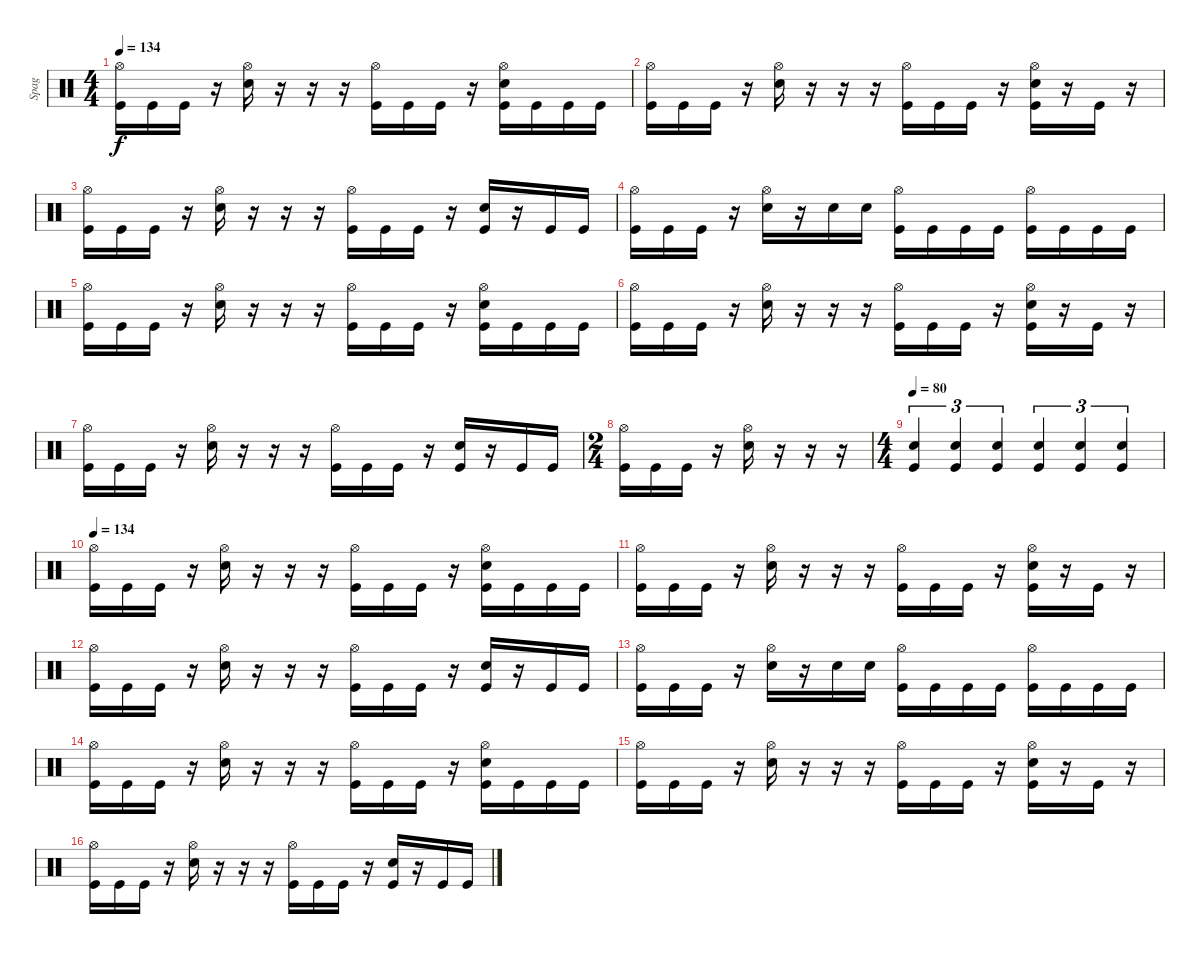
\track ("Spag" "Spag") {instrument percussion}
\staff {score}
\articulation defaults
\ts (4 4)
\tempo 134
\clef neutral
\ks c
("Hi-Hat (open)" "Kick (hit)").16{dy f} "Kick (hit)".16 "Kick (hit)".16 r.16 ("Hi-Hat (open)" "Electric Snare (hit)").16 r.16 r.16 r.16 ("Hi-Hat (open)" "Kick (hit)").16 "Kick (hit)".16 "Kick (hit)".16 r.16 ("Hi-Hat (open)" "Electric Snare (hit)" "Kick (hit)").16 "Kick (hit)".16 "Kick (hit)".16 "Kick (hit)".16 |
("Hi-Hat (open)" "Kick (hit)").16 "Kick (hit)".16 "Kick (hit)".16 r.16 ("Hi-Hat (open)" "Electric Snare (hit)").16 r.16 r.16 r.16 ("Hi-Hat (open)" "Kick (hit)").16 "Kick (hit)".16 "Kick (hit)".16 r.16 ("Hi-Hat (open)" "Electric Snare (hit)" "Kick (hit)").16 r.16 "Kick (hit)".16 r.16 |
("Hi-Hat (open)" "Kick (hit)").16 "Kick (hit)".16 "Kick (hit)".16 r.16 ("Hi-Hat (open)" "Electric Snare (hit)").16 r.16 r.16 r.16 ("Hi-Hat (open)" "Kick (hit)").16 "Kick (hit)".16 "Kick (hit)".16 r.16 ("Kick (hit)" "Electric Snare (hit)").16 r.16 "Kick (hit)".16 "Kick (hit)".16 |
("Hi-Hat (open)" "Kick (hit)").16 "Kick (hit)".16 "Kick (hit)".16 r.16 ("Hi-Hat (open)" "Electric Snare (hit)").16 r.16 "Electric Snare (hit)".16 "Electric Snare (hit)".16 ("Hi-Hat (open)" "Kick (hit)").16 "Kick (hit)".16 "Kick (hit)".16 "Kick (hit)".16 ("Hi-Hat (open)" "Kick (hit)").16 "Kick (hit)".16 "Kick (hit)".16 "Kick (hit)".16 |
("Hi-Hat (open)" "Kick (hit)").16 "Kick (hit)".16 "Kick (hit)".16 r.16 ("Hi-Hat (open)" "Electric Snare (hit)").16 r.16 r.16 r.16 ("Hi-Hat (open)" "Kick (hit)").16 "Kick (hit)".16 "Kick (hit)".16 r.16 ("Hi-Hat (open)" "Electric Snare (hit)" "Kick (hit)").16 "Kick (hit)".16 "Kick (hit)".16 "Kick (hit)".16 |
("Hi-Hat (open)" "Kick (hit)").16 "Kick (hit)".16 "Kick (hit)".16 r.16 ("Hi-Hat (open)" "Electric Snare (hit)").16 r.16 r.16 r.16 ("Hi-Hat (open)" "Kick (hit)").16 "Kick (hit)".16 "Kick (hit)".16 r.16 ("Hi-Hat (open)" "Electric Snare (hit)" "Kick (hit)").16 r.16 "Kick (hit)".16 r.16 |
("Hi-Hat (open)" "Kick (hit)").16 "Kick (hit)".16 "Kick (hit)".16 r.16 ("Hi-Hat (open)" "Electric Snare (hit)").16 r.16 r.16 r.16 ("Hi-Hat (open)" "Kick (hit)").16 "Kick (hit)".16 "Kick (hit)".16 r.16 ("Kick (hit)" "Electric Snare (hit)").16 r.16 "Kick (hit)".16 "Kick (hit)".16 |
\ts (2 4)
("Hi-Hat (open)" "Kick (hit)").16 "Kick (hit)".16 "Kick (hit)".16 r.16 ("Hi-Hat (open)" "Electric Snare (hit)").16 r.16 r.16 r.16 |
\ts (4 4)
\tempo 80
("Snare (hit) 2" "Kick (hit)").4{tu (3 2)} ("Snare (hit) 2" "Kick (hit)").4{tu (3 2)} ("Snare (hit) 2" "Kick (hit)").4{tu (3 2)} ("Snare (hit) 2" "Kick (hit)").4{tu (3 2)} ("Snare (hit) 2" "Kick (hit)").4{tu (3 2)} ("Snare (hit) 2" "Kick (hit)").4{tu (3 2)} |
\tempo 134
("Hi-Hat (open)" "Kick (hit)").16 "Kick (hit)".16 "Kick (hit)".16 r.16 ("Hi-Hat (open)" "Electric Snare (hit)").16 r.16 r.16 r.16 ("Hi-Hat (open)" "Kick (hit)").16 "Kick (hit)".16 "Kick (hit)".16 r.16 ("Hi-Hat (open)" "Electric Snare (hit)" "Kick (hit)").16 "Kick (hit)".16 "Kick (hit)".16 "Kick (hit)".16 |
("Hi-Hat (open)" "Kick (hit)").16 "Kick (hit)".16 "Kick (hit)".16 r.16 ("Hi-Hat (open)" "Electric Snare (hit)").16 r.16 r.16 r.16 ("Hi-Hat (open)" "Kick (hit)").16 "Kick (hit)".16 "Kick (hit)".16 r.16 ("Hi-Hat (open)" "Electric Snare (hit)" "Kick (hit)").16 r.16 "Kick (hit)".16 r.16 |
("Hi-Hat (open)" "Kick (hit)").16 "Kick (hit)".16 "Kick (hit)".16 r.16 ("Hi-Hat (open)" "Electric Snare (hit)").16 r.16 r.16 r.16 ("Hi-Hat (open)" "Kick (hit)").16 "Kick (hit)".16 "Kick (hit)".16 r.16 ("Kick (hit)" "Electric Snare (hit)").16 r.16 "Kick (hit)".16 "Kick (hit)".16 |
("Hi-Hat (open)" "Kick (hit)").16 "Kick (hit)".16 "Kick (hit)".16 r.16 ("Hi-Hat (open)" "Electric Snare (hit)").16 r.16 "Electric Snare (hit)".16 "Electric Snare (hit)".16 ("Hi-Hat (open)" "Kick (hit)").16 "Kick (hit)".16 "Kick (hit)".16 "Kick (hit)".16 ("Hi-Hat (open)" "Kick (hit)").16 "Kick (hit)".16 "Kick (hit)".16 "Kick (hit)".16 |
("Hi-Hat (open)" "Kick (hit)").16 "Kick (hit)".16 "Kick (hit)".16 r.16 ("Hi-Hat (open)" "Electric Snare (hit)").16 r.16 r.16 r.16 ("Hi-Hat (open)" "Kick (hit)").16 "Kick (hit)".16 "Kick (hit)".16 r.16 ("Hi-Hat (open)" "Electric Snare (hit)" "Kick (hit)").16 "Kick (hit)".16 "Kick (hit)".16 "Kick (hit)".16 |
("Hi-Hat (open)" "Kick (hit)").16 "Kick (hit)".16 "Kick (hit)".16 r.16 ("Hi-Hat (open)" "Electric Snare (hit)").16 r.16 r.16 r.16 ("Hi-Hat (open)" "Kick (hit)").16 "Kick (hit)".16 "Kick (hit)".16 r.16 ("Hi-Hat (open)" "Electric Snare (hit)" "Kick (hit)").16 r.16 "Kick (hit)".16 r.16 |
("Hi-Hat (open)" "Kick (hit)").16 "Kick (hit)".16 "Kick (hit)".16 r.16 ("Hi-Hat (open)" "Electric Snare (hit)").16 r.16 r.16 r.16 ("Hi-Hat (open)" "Kick (hit)").16 "Kick (hit)".16 "Kick (hit)".16 r.16 ("Kick (hit)" "Electric Snare (hit)").16 r.16 "Kick (hit)".16 "Kick (hit)".16
